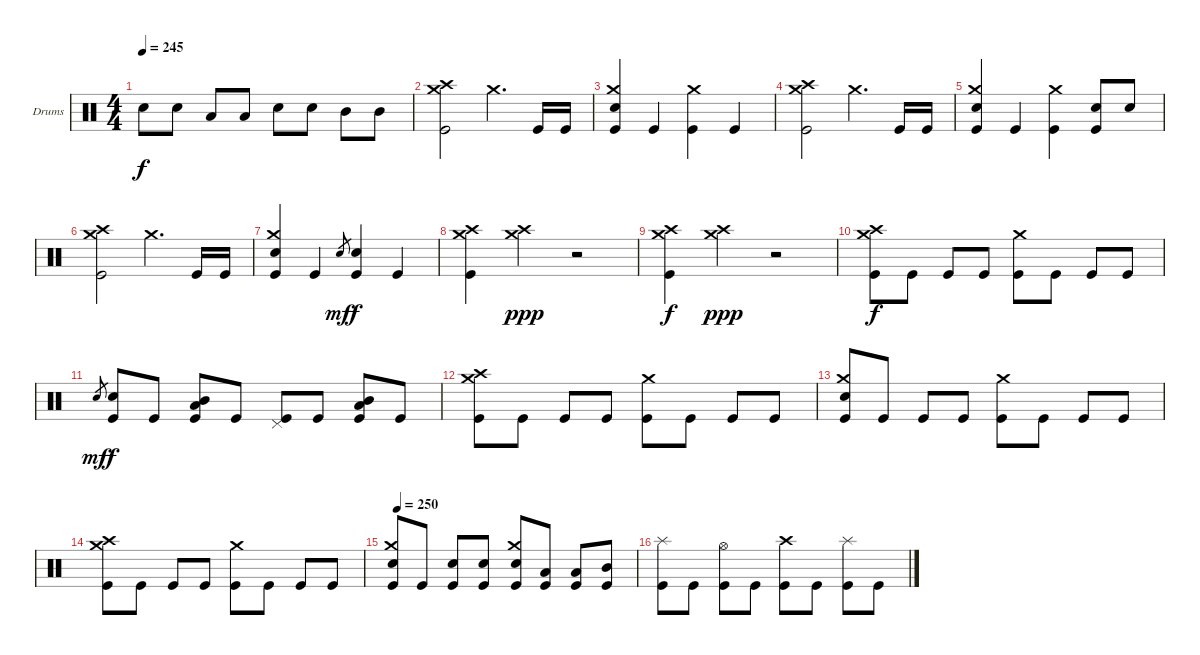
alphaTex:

\bracketExtendMode groupsimilarinstruments
\firstSystemTrackNameOrientation horizontal
\otherSystemsTrackNameOrientation horizontal
\track ("Drumkit" "Drums") {instrument percussion}
\staff {score}
\articulation defaults
\ts (4 4)
\tempo 245
\clef neutral
\ks c "Snare (hit) 2".8{dy f} "Snare (hit) 2".8 "Low Tom (hit)".8 "Low Tom (hit)".8 "Snare (hit) 2".8 "Snare (hit) 2".8 "Mid Tom (hit)".8 "Mid Tom (hit)".8
|
("Crash high (hit)" "Crash medium (hit)" "Kick (hit)").2 "Crash medium (hit)".4{d} "Kick (hit)".16 "Kick (hit)".16 |
("Crash medium (hit)" "Snare (hit) 2" "Kick (hit)").4 "Kick (hit)".4 ("Crash medium (hit)" "Kick (hit)").4 "Kick (hit)".4 |
("Crash high (hit)" "Crash medium (hit)" "Kick (hit)").2 "Crash medium (hit)".4{d} "Kick (hit)".16 "Kick (hit)".16 |
("Crash medium (hit)" "Snare (hit) 2" "Kick (hit)").4 "Kick (hit)".4 ("Crash medium (hit)" "Kick (hit)").4 ("Snare (hit) 2" "Kick (hit)").8 "Snare (hit) 2".8 |
("Crash high (hit)" "Crash medium (hit)" "Kick (hit)").2 "Crash medium (hit)".4{d} "Kick (hit)".16 "Kick (hit)".16 |
("Crash medium (hit)" "Snare (hit) 2" "Kick (hit)").4 "Kick (hit)".4 "Snare (hit) 2".8{gr dy mf} ("Snare (hit) 2" "Kick (hit)").4{dy f} "Kick (hit)".4 |
("Crash high (hit)" "Crash medium (hit)" "Kick (hit)").4 ("Crash high (hit)" "Crash medium (hit)").4{dy ppp} r.2 |
("Crash high (hit)" "Crash medium (hit)" "Kick (hit)").4{dy f} ("Crash high (hit)" "Crash medium (hit)").4{dy ppp} r.2 |
("Crash high (hit)" "Crash medium (hit)" "Kick (hit)").8{dy f} "Kick (hit)".8 "Kick (hit)".8 "Kick (hit)".8 ("Crash medium (hit)" "Kick (hit)").8 "Kick (hit)".8 "Kick (hit)".8 "Kick (hit)".8 |
"Snare (hit) 2".8{gr dy mf} ("Snare (hit) 2" "Kick (hit)").8{dy f} "Kick (hit)".8 ("Mid Tom (hit)" "Low Tom (hit)" "Kick (hit)").8 "Kick (hit)".8 ("Pedal Hi-Hat (hit)" "Kick (hit)").8 "Kick (hit)".8 ("Mid Tom (hit)" "Low Tom (hit)" "Kick (hit)").8 "Kick (hit)".8 |
("Crash high (hit)" "Crash medium (hit)" "Kick (hit)").8 "Kick (hit)".8 "Kick (hit)".8 "Kick (hit)".8 ("Crash medium (hit)" "Kick (hit)").8 "Kick (hit)".8 "Kick (hit)".8 "Kick (hit)".8 |
("Crash medium (hit)" "Snare (hit) 2" "Kick (hit)").8 "Kick (hit)".8 "Kick (hit)".8 "Kick (hit)".8 ("Crash medium (hit)" "Kick (hit)").8 "Kick (hit)".8 "Kick (hit)".8 "Kick (hit)".8 |
("Crash high (hit)" "Crash medium (hit)" "Kick (hit)").8 "Kick (hit)".8 "Kick (hit)".8 "Kick (hit)".8 ("Crash medium (hit)" "Kick (hit)").8 "Kick (hit)".8 "Kick (hit)".8 "Kick (hit)".8 |
\tempo (250 0.0292398)
("Crash medium (hit)" "Snare (hit) 2" "Kick (hit)").8 "Kick (hit)".8 ("Snare (hit) 2" "Kick (hit)").8 ("Snare (hit) 2" "Kick (hit)").8 ("Crash medium (hit)" "Snare (hit) 2" "Kick (hit)").8 ("Low Tom (hit)" "Kick (hit)").8 ("Low Tom (hit)" "Kick (hit)").8 ("Mid Tom (hit)" "Kick (hit)").8 |
("Splash (hit)" "Kick (hit)").8 "Kick (hit)".8 ("Hi-Hat (open)" "Kick (hit)").8 "Kick (hit)".8 ("Crash high (hit)" "Kick (hit)").8 "Kick (hit)".8 ("Splash (hit)" "Kick (hit)").8 "Kick (hit)".8
